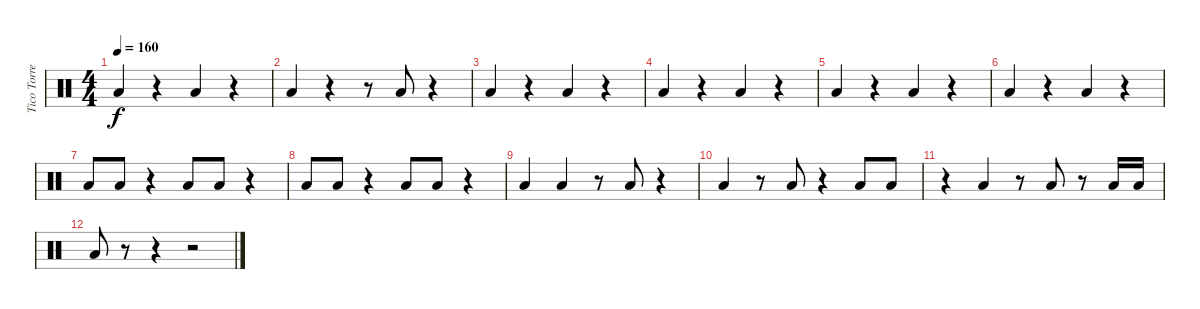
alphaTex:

\track ("Tico Torres" "Tico Torre") {instrument percussion}
\staff {score}
\articulation defaults
\ts (4 4)
\tempo 160
\clef neutral
\ks c "Low Floor Tom (hit)".4{dy f}
r.4 "Low Floor Tom (hit)".4 r.4 |
"Low Floor Tom (hit)".4 r.4 r.8 "Low Floor Tom (hit)".8 r.4 |
"Low Floor Tom (hit)".4 r.4 "Low Floor Tom (hit)".4 r.4 |
"Low Floor Tom (hit)".4 r.4 "Low Floor Tom (hit)".4 r.4 |
"Low Floor Tom (hit)".4 r.4 "Low Floor Tom (hit)".4 r.4 |
"Low Floor Tom (hit)".4 r.4 "Low Floor Tom (hit)".4 r.4 |
"Low Floor Tom (hit)".8 "Low Floor Tom (hit)".8 r.4 "Low Floor Tom (hit)".8 "Low Floor Tom (hit)".8 r.4 |
"Low Floor Tom (hit)".8 "Low Floor Tom (hit)".8 r.4 "Low Floor Tom (hit)".8 "Low Floor Tom (hit)".8 r.4 |
"Low Floor Tom (hit)".4 "Low Floor Tom (hit)".4 r.8 "Low Floor Tom (hit)".8 r.4 |
"Low Floor Tom (hit)".4 r.8 "Low Floor Tom (hit)".8 r.4 "Low Floor Tom (hit)".8 "Low Floor Tom (hit)".8 |
r.4 "Low Floor Tom (hit)".4 r.8 "Low Floor Tom (hit)".8 r.8 "Low Floor Tom (hit)".16 "Low Floor Tom (hit)".16 |
"Low Floor Tom (hit)".8 r.8 r.4 r.2
